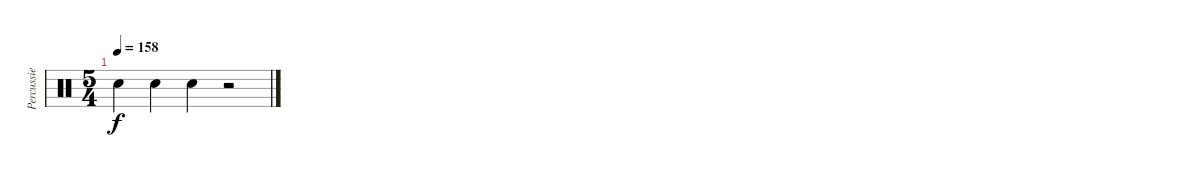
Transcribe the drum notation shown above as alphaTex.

\track ("Percussie" "Percussie") {instrument percussion}
\staff {score}
\articulation defaults
\ts (5 4)
\tempo 158
\clef neutral
\ks c "Metronome (bell)".4{dy f} "Metronome (bell)".4 "Metronome (bell)".4
r.2
